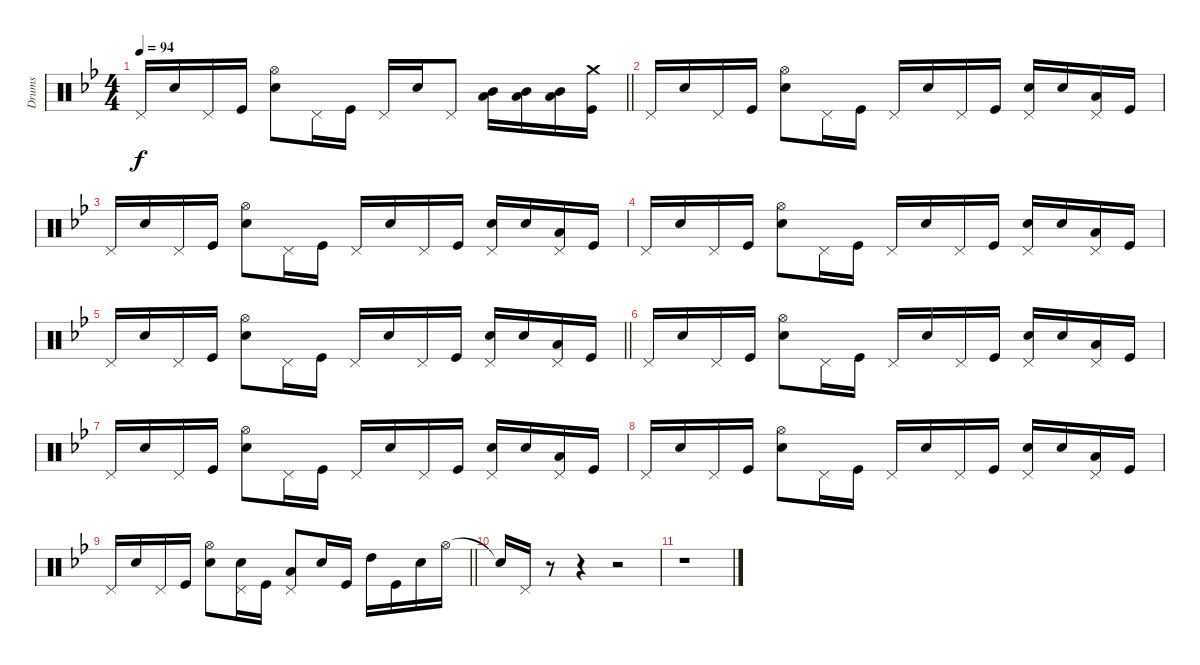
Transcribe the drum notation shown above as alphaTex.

\track ("Drums" "Drums") {instrument percussion}
\staff {score}
\articulation defaults
\ts (4 4)
\tempo 94
\clef neutral
\barLineRight lightlight
\ks gminor "Pedal Hi-Hat (hit)".16{dy f} "Electric Snare (hit)".16 "Pedal Hi-Hat (hit)".16 "Kick (hit)".16
("Hi-Hat (open)" "Electric Snare (hit)").8 "Pedal Hi-Hat (hit)".16 "Kick (hit)".16 "Pedal Hi-Hat (hit)".16 "Electric Snare (hit)".16 "Pedal Hi-Hat (hit)".8 ("Mid Tom (hit)" "Low Floor Tom (hit)").16 ("Mid Tom (hit)" "Low Floor Tom (hit)").16 ("Mid Tom (hit)" "Low Floor Tom (hit)").16 ("Crash medium (hit)" "Kick (hit)").16 |
"Pedal Hi-Hat (hit)".16 "Electric Snare (hit)".16 "Pedal Hi-Hat (hit)".16 "Kick (hit)".16 ("Hi-Hat (open)" "Electric Snare (hit)").8 "Pedal Hi-Hat (hit)".16 "Kick (hit)".16 "Pedal Hi-Hat (hit)".16 "Electric Snare (hit)".16 "Pedal Hi-Hat (hit)".16 "Kick (hit)".16 ("Pedal Hi-Hat (hit)" "Electric Snare (hit)").16 "Electric Snare (hit)".16 ("Pedal Hi-Hat (hit)" "Low Floor Tom (hit)").16 "Kick (hit)".16 |
"Pedal Hi-Hat (hit)".16 "Electric Snare (hit)".16 "Pedal Hi-Hat (hit)".16 "Kick (hit)".16 ("Hi-Hat (open)" "Electric Snare (hit)").8 "Pedal Hi-Hat (hit)".16 "Kick (hit)".16 "Pedal Hi-Hat (hit)".16 "Electric Snare (hit)".16 "Pedal Hi-Hat (hit)".16 "Kick (hit)".16 ("Pedal Hi-Hat (hit)" "Electric Snare (hit)").16 "Electric Snare (hit)".16 ("Pedal Hi-Hat (hit)" "Low Floor Tom (hit)").16 "Kick (hit)".16 |
"Pedal Hi-Hat (hit)".16 "Electric Snare (hit)".16 "Pedal Hi-Hat (hit)".16 "Kick (hit)".16 ("Hi-Hat (open)" "Electric Snare (hit)").8 "Pedal Hi-Hat (hit)".16 "Kick (hit)".16 "Pedal Hi-Hat (hit)".16 "Electric Snare (hit)".16 "Pedal Hi-Hat (hit)".16 "Kick (hit)".16 ("Pedal Hi-Hat (hit)" "Electric Snare (hit)").16 "Electric Snare (hit)".16 ("Pedal Hi-Hat (hit)" "Low Floor Tom (hit)").16 "Kick (hit)".16 |
\barLineRight lightlight "Pedal Hi-Hat (hit)".16 "Electric Snare (hit)".16 "Pedal Hi-Hat (hit)".16 "Kick (hit)".16
("Hi-Hat (open)" "Electric Snare (hit)").8 "Pedal Hi-Hat (hit)".16 "Kick (hit)".16 "Pedal Hi-Hat (hit)".16 "Electric Snare (hit)".16 "Pedal Hi-Hat (hit)".16 "Kick (hit)".16 ("Pedal Hi-Hat (hit)" "Electric Snare (hit)").16 "Electric Snare (hit)".16 ("Pedal Hi-Hat (hit)" "Low Floor Tom (hit)").16 "Kick (hit)".16 |
"Pedal Hi-Hat (hit)".16 "Electric Snare (hit)".16 "Pedal Hi-Hat (hit)".16 "Kick (hit)".16 ("Hi-Hat (open)" "Electric Snare (hit)").8 "Pedal Hi-Hat (hit)".16 "Kick (hit)".16 "Pedal Hi-Hat (hit)".16 "Electric Snare (hit)".16 "Pedal Hi-Hat (hit)".16 "Kick (hit)".16 ("Pedal Hi-Hat (hit)" "Electric Snare (hit)").16 "Electric Snare (hit)".16 ("Pedal Hi-Hat (hit)" "Low Floor Tom (hit)").16 "Kick (hit)".16 |
"Pedal Hi-Hat (hit)".16 "Electric Snare (hit)".16 "Pedal Hi-Hat (hit)".16 "Kick (hit)".16 ("Hi-Hat (open)" "Electric Snare (hit)").8 "Pedal Hi-Hat (hit)".16 "Kick (hit)".16 "Pedal Hi-Hat (hit)".16 "Electric Snare (hit)".16 "Pedal Hi-Hat (hit)".16 "Kick (hit)".16 ("Pedal Hi-Hat (hit)" "Electric Snare (hit)").16 "Electric Snare (hit)".16 ("Pedal Hi-Hat (hit)" "Low Floor Tom (hit)").16 "Kick (hit)".16 |
"Pedal Hi-Hat (hit)".16 "Electric Snare (hit)".16 "Pedal Hi-Hat (hit)".16 "Kick (hit)".16 ("Hi-Hat (open)" "Electric Snare (hit)").8 "Pedal Hi-Hat (hit)".16 "Kick (hit)".16 "Pedal Hi-Hat (hit)".16 "Electric Snare (hit)".16 "Pedal Hi-Hat (hit)".16 "Kick (hit)".16 ("Pedal Hi-Hat (hit)" "Electric Snare (hit)").16 "Electric Snare (hit)".16 ("Pedal Hi-Hat (hit)" "Low Floor Tom (hit)").16 "Kick (hit)".16 |
\barLineRight lightlight "Pedal Hi-Hat (hit)".16 "Electric Snare (hit)".16 "Pedal Hi-Hat (hit)".16 "Kick (hit)".16
("Hi-Hat (open)" "Electric Snare (hit)").8 ("Pedal Hi-Hat (hit)" "Electric Snare (hit)").16 "Kick (hit)".16 ("Pedal Hi-Hat (hit)" "Low Floor Tom (hit)").8 "Electric Snare (hit)".16 "Kick (hit)".16 "High Tom (hit)".16 "Kick (hit)".16 "Electric Snare (hit)".16 "Hi-Hat (open)".16 |
"Snare (hit)"{t}.16 "Pedal Hi-Hat (hit)".16 r.8 r.4 r.2 |
r.1
